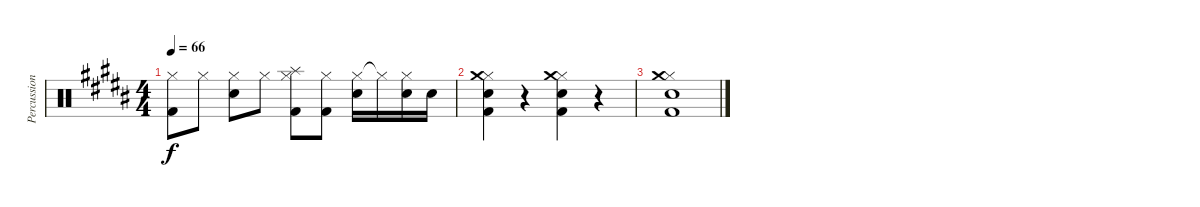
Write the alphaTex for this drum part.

\track ("Percussion" "Percussion") {instrument percussion}
\staff {score}
\articulation defaults
\ts (4 4)
\tempo 66
\clef neutral
\ks b
("Hi-Hat (closed)" "Kick (hit) 2").8{dy f} "Hi-Hat (closed)".8 ("Hi-Hat (closed)" "Snare (hit) 2").8 "Hi-Hat (closed)".8 ("Hi-Hat (closed)" "Splash (hit)" "Kick (hit) 2").8 ("Hi-Hat (closed)" "Kick (hit) 2").8 ("Hi-Hat (closed)" "Snare (hit) 2").16 "Hi-Hat (closed)"{t}.16 ("Hi-Hat (closed)" "Snare (hit) 2").16 "Snare (hit) 2".16 |
("Hi-Hat (closed)" "Crash medium (hit)" "Snare (hit) 2" "Kick (hit) 2").4 r.4 ("Hi-Hat (closed)" "Crash medium (hit)" "Snare (hit) 2" "Kick (hit) 2").4 r.4 |
("Hi-Hat (closed)" "Crash medium (hit)" "Snare (hit) 2" "Kick (hit) 2").1
